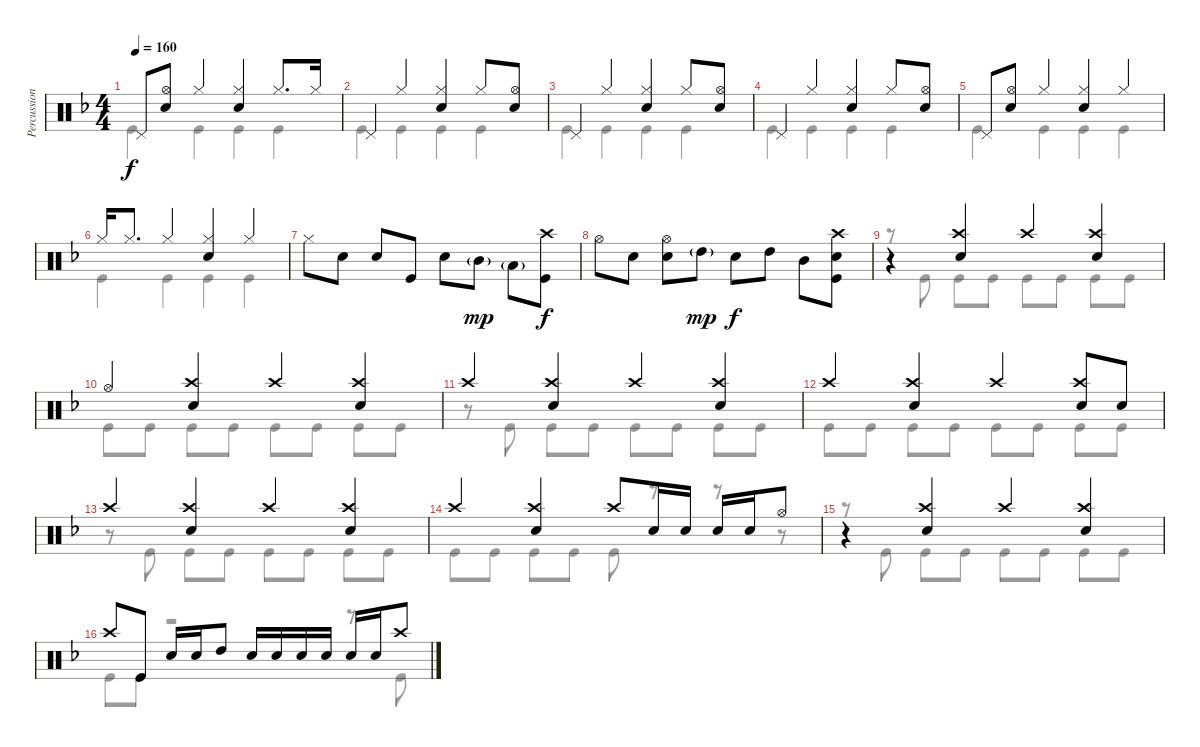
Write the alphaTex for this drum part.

\track ("Percussion" "Percussion") {instrument percussion}
\staff {score}
\articulation defaults
\voice
\ts (4 4)
\tempo 160
\clef neutral
\ks dminor "Pedal Hi-Hat (hit)".8{dy f}
("Hi-Hat (open)" "Snare (hit) 2").8 "Hi-Hat (closed)".4 ("Hi-Hat (closed)" "Snare (hit) 2").4 "Hi-Hat (closed)".8{d} "Hi-Hat (closed)".16 |
"Pedal Hi-Hat (hit)".4 "Hi-Hat (closed)".4 ("Hi-Hat (closed)" "Snare (hit) 2").4 "Hi-Hat (closed)".8 ("Hi-Hat (open)" "Snare (hit) 2").8 |
"Pedal Hi-Hat (hit)".4 "Hi-Hat (closed)".4 ("Hi-Hat (closed)" "Snare (hit) 2").4 "Hi-Hat (closed)".8 ("Hi-Hat (open)" "Snare (hit) 2").8 |
"Pedal Hi-Hat (hit)".4 "Hi-Hat (closed)".4 ("Hi-Hat (closed)" "Snare (hit) 2").4 "Hi-Hat (closed)".8 ("Hi-Hat (open)" "Snare (hit) 2").8 |
"Pedal Hi-Hat (hit)".8 ("Hi-Hat (open)" "Snare (hit) 2").8 "Hi-Hat (closed)".4 ("Hi-Hat (closed)" "Snare (hit) 2").4 "Hi-Hat (closed)".4 |
"Hi-Hat (closed)".16 "Hi-Hat (closed)".8{d} "Hi-Hat (closed)".4 ("Hi-Hat (closed)" "Snare (hit) 2").4 "Hi-Hat (closed)".4 |
"Hi-Hat (closed)".8 "Snare (hit) 2".8 "Snare (hit) 2".8 "Kick (hit)".8 "Snare (hit) 2".8 "Mid Tom (hit)"{g}.8{dy mp} "Low Tom (hit)"{g}.8 ("Crash high (hit)" "Kick (hit)").8{dy f} |
"Hi-Hat (open)".8 "Snare (hit) 2".8 ("Hi-Hat (open)" "Snare (hit) 2").8 "High Tom (hit)"{g}.8{dy mp} "Snare (hit) 2".8{dy f} "High Tom (hit)".8 "Mid Tom (hit)".8 ("Crash high (hit)" "Snare (hit) 2" "Kick (hit)").8 |
r.4 ("Crash high (hit)" "Snare (hit) 2").4 "Crash high (hit)".4 ("Crash high (hit)" "Snare (hit) 2").4 |
"Hi-Hat (open)".4 ("Crash high (hit)" "Snare (hit) 2").4 "Crash high (hit)".4 ("Crash high (hit)" "Snare (hit) 2").4 |
"Crash high (hit)".4 ("Crash high (hit)" "Snare (hit) 2").4 "Crash high (hit)".4 ("Crash high (hit)" "Snare (hit) 2").4 |
"Crash high (hit)".4 ("Crash high (hit)" "Snare (hit) 2").4 "Crash high (hit)".4 ("Crash high (hit)" "Snare (hit) 2").8 "Snare (hit) 2".8 |
"Crash high (hit)".4 ("Crash high (hit)" "Snare (hit) 2").4 "Crash high (hit)".4 ("Crash high (hit)" "Snare (hit) 2").4 |
"Crash high (hit)".4 ("Crash high (hit)" "Snare (hit) 2").4 "Crash high (hit)".8 "Snare (hit) 2".16 "Snare (hit) 2".16 "Snare (hit) 2".16 "Snare (hit) 2".16 "Hi-Hat (open)".8 |
r.4 ("Crash high (hit)" "Snare (hit) 2").4 "Crash high (hit)".4 ("Crash high (hit)" "Snare (hit) 2").4 |
"Crash high (hit)".8 "Kick (hit)".8 "Snare (hit) 2".16 "Snare (hit) 2".16 "High Tom (hit)".8 "Snare (hit) 2".16 "Snare (hit) 2".16 "Snare (hit) 2".16 "Snare (hit) 2".16 "Snare (hit) 2".16 "Snare (hit) 2".16 "Crash high (hit)".8
\voice
\clef neutral
\ottava regular
\simile none
\ks dminor "Kick (hit)".4{dy f} "Kick (hit)".4 "Kick (hit)".4 "Kick (hit)".4
|
"Kick (hit)".4 "Kick (hit)".4 "Kick (hit)".4 "Kick (hit)".4 |
"Kick (hit)".4 "Kick (hit)".4 "Kick (hit)".4 "Kick (hit)".4 |
"Kick (hit)".4 "Kick (hit)".4 "Kick (hit)".4 "Kick (hit)".4 |
"Kick (hit)".4 "Kick (hit)".4 "Kick (hit)".4 "Kick (hit)".4 |
"Kick (hit)".4 "Kick (hit)".4 "Kick (hit)".4 "Kick (hit)".4 |
|
|
r.8 "Kick (hit)".8 "Kick (hit)".8 "Kick (hit)".8 "Kick (hit)".8 "Kick (hit)".8 "Kick (hit)".8 "Kick (hit)".8 |
"Kick (hit)".8 "Kick (hit)".8 "Kick (hit)".8 "Kick (hit)".8 "Kick (hit)".8 "Kick (hit)".8 "Kick (hit)".8 "Kick (hit)".8 |
r.8 "Kick (hit)".8 "Kick (hit)".8 "Kick (hit)".8 "Kick (hit)".8 "Kick (hit)".8 "Kick (hit)".8 "Kick (hit)".8 |
"Kick (hit)".8 "Kick (hit)".8 "Kick (hit)".8 "Kick (hit)".8 "Kick (hit)".8 "Kick (hit)".8 "Kick (hit)".8 "Kick (hit)".8 |
r.8 "Kick (hit)".8 "Kick (hit)".8 "Kick (hit)".8 "Kick (hit)".8 "Kick (hit)".8 "Kick (hit)".8 "Kick (hit)".8 |
"Kick (hit)".8 "Kick (hit)".8 "Kick (hit)".8 "Kick (hit)".8 "Kick (hit)".8 r.8 r.8 r.8 |
r.8 "Kick (hit)".8 "Kick (hit)".8 "Kick (hit)".8 "Kick (hit)".8 "Kick (hit)".8 "Kick (hit)".8 "Kick (hit)".8 |
"Kick (hit)".8 "Kick (hit)".8 r.2 r.8 "Kick (hit)".8
